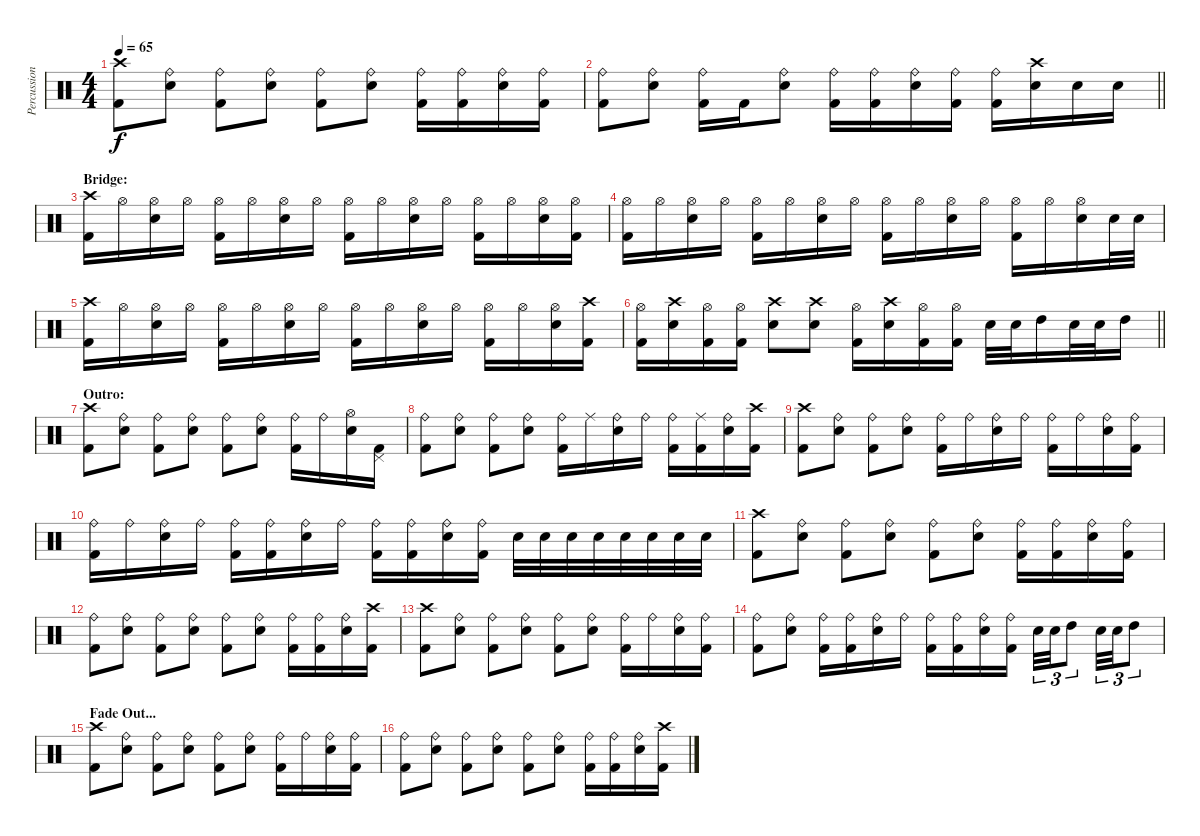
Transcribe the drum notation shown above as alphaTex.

\track ("Percussion" "Percussion") {instrument percussion}
\staff {score}
\articulation defaults
\ts (4 4)
\tempo 65
\clef neutral
\ks c
("Crash high (hit)" "Kick (hit) 2").8{dy f} ("Ride (bell)" "Electric Snare (hit)").8 ("Ride (bell)" "Kick (hit) 2").8 ("Ride (bell)" "Electric Snare (hit)").8 ("Ride (bell)" "Kick (hit) 2").8 ("Ride (bell)" "Electric Snare (hit)").8 ("Ride (bell)" "Kick (hit) 2").16 ("Ride (bell)" "Kick (hit) 2").16 ("Ride (bell)" "Electric Snare (hit)").16 ("Ride (bell)" "Kick (hit) 2").16 |
\barLineRight lightlight
("Ride (bell)" "Kick (hit) 2").8 ("Ride (bell)" "Electric Snare (hit)").8 ("Ride (bell)" "Kick (hit) 2").16 "Kick (hit) 2".16 ("Ride (bell)" "Electric Snare (hit)").8 ("Ride (bell)" "Kick (hit) 2").16 ("Ride (bell)" "Kick (hit) 2").16 ("Ride (bell)" "Electric Snare (hit)").16 ("Ride (bell)" "Kick (hit) 2").16 ("Ride (bell)" "Kick (hit) 2").16 ("Crash high (hit)" "Electric Snare (hit)").16 "Electric Snare (hit)".16 "Electric Snare (hit)".16 |
\section ("" "Bridge:")
("Crash high (hit)" "Kick (hit) 2").16 "Hi-Hat (open)".16 ("Hi-Hat (open)" "Electric Snare (hit)").16 "Hi-Hat (open)".16 ("Hi-Hat (open)" "Kick (hit) 2").16 "Hi-Hat (open)".16 ("Hi-Hat (open)" "Electric Snare (hit)").16 "Hi-Hat (open)".16 ("Hi-Hat (open)" "Kick (hit) 2").16 "Hi-Hat (open)".16 ("Hi-Hat (open)" "Electric Snare (hit)").16 "Hi-Hat (open)".16 ("Hi-Hat (open)" "Kick (hit) 2").16 "Hi-Hat (open)".16 ("Hi-Hat (open)" "Electric Snare (hit)").16 ("Hi-Hat (open)" "Kick (hit) 2").16 |
("Hi-Hat (open)" "Kick (hit) 2").16 "Hi-Hat (open)".16 ("Hi-Hat (open)" "Electric Snare (hit)").16 "Hi-Hat (open)".16 ("Hi-Hat (open)" "Kick (hit) 2").16 "Hi-Hat (open)".16 ("Hi-Hat (open)" "Electric Snare (hit)").16 "Hi-Hat (open)".16 ("Hi-Hat (open)" "Kick (hit) 2").16 "Hi-Hat (open)".16 ("Hi-Hat (open)" "Electric Snare (hit)").16 "Hi-Hat (open)".16 ("Hi-Hat (open)" "Kick (hit) 2").16 "Hi-Hat (open)".16 ("Hi-Hat (open)" "Electric Snare (hit)").16 "Electric Snare (hit)".32 "Electric Snare (hit)".32 |
("Crash high (hit)" "Kick (hit) 2").16 "Hi-Hat (open)".16 ("Hi-Hat (open)" "Electric Snare (hit)").16 "Hi-Hat (open)".16 ("Hi-Hat (open)" "Kick (hit) 2").16 "Hi-Hat (open)".16 ("Hi-Hat (open)" "Electric Snare (hit)").16 "Hi-Hat (open)".16 ("Hi-Hat (open)" "Kick (hit) 2").16 "Hi-Hat (open)".16 ("Hi-Hat (open)" "Electric Snare (hit)").16 "Hi-Hat (open)".16 ("Hi-Hat (open)" "Kick (hit) 2").16 "Hi-Hat (open)".16 ("Hi-Hat (open)" "Electric Snare (hit)").16 ("Crash high (hit)" "Kick (hit) 2").16 |
\barLineRight lightlight
("Hi-Hat (open)" "Kick (hit) 2").16 ("Crash high (hit)" "Electric Snare (hit)").16 ("Hi-Hat (open)" "Kick (hit) 2").16 ("Hi-Hat (open)" "Kick (hit) 2").16 ("Crash high (hit)" "Electric Snare (hit)").8 ("Crash high (hit)" "Electric Snare (hit)").8 ("Hi-Hat (open)" "Kick (hit) 2").16 ("Crash high (hit)" "Electric Snare (hit)").16 ("Hi-Hat (open)" "Kick (hit) 2").16 ("Hi-Hat (open)" "Kick (hit) 2").16 "Electric Snare (hit)".32 "Electric Snare (hit)".32 "High Tom (hit)".16 "Electric Snare (hit)".32 "Electric Snare (hit)".32 "High Tom (hit)".16 |
\section ("" "Outro:")
("Crash high (hit)" "Kick (hit) 2").8 ("Ride (bell)" "Electric Snare (hit)").8 ("Ride (bell)" "Kick (hit) 2").8 ("Ride (bell)" "Electric Snare (hit)").8 ("Ride (bell)" "Kick (hit) 2").8 ("Ride (bell)" "Electric Snare (hit)").8 ("Ride (bell)" "Kick (hit) 2").16 "Ride (bell)".16 ("Hi-Hat (open)" "Electric Snare (hit)").16 ("Pedal Hi-Hat (hit)" "Kick (hit) 2").16 |
("Ride (bell)" "Kick (hit) 2").8 ("Ride (bell)" "Electric Snare (hit)").8 ("Ride (bell)" "Kick (hit) 2").8 ("Ride (bell)" "Electric Snare (hit)").8 ("Ride (bell)" "Kick (hit) 2").16 "Ride (middle)".16 ("Ride (bell)" "Electric Snare (hit)").16 "Ride (bell)".16 ("Ride (bell)" "Kick (hit) 2").16 ("Ride (middle)" "Kick (hit) 2").16 ("Ride (bell)" "Electric Snare (hit)").16 ("Crash high (hit)" "Kick (hit) 2").16 |
("Crash high (hit)" "Kick (hit) 2").8 ("Ride (bell)" "Electric Snare (hit)").8 ("Ride (bell)" "Kick (hit) 2").8 ("Ride (bell)" "Electric Snare (hit)").8 ("Ride (bell)" "Kick (hit) 2").16 "Ride (bell)".16 ("Ride (bell)" "Electric Snare (hit)").16 "Ride (bell)".16 ("Ride (bell)" "Kick (hit) 2").16 "Ride (bell)".16 ("Ride (bell)" "Electric Snare (hit)").16 ("Ride (bell)" "Kick (hit) 2").16 |
("Ride (bell)" "Kick (hit) 2").16 "Ride (bell)".16 ("Ride (bell)" "Electric Snare (hit)").16 "Ride (bell)".16 ("Ride (bell)" "Kick (hit) 2").16 ("Ride (bell)" "Kick (hit) 2").16 ("Ride (bell)" "Electric Snare (hit)").16 "Ride (bell)".16 ("Ride (bell)" "Kick (hit) 2").16 ("Ride (bell)" "Kick (hit) 2").16 ("Ride (bell)" "Electric Snare (hit)").16 ("Ride (bell)" "Kick (hit) 2").16 "Electric Snare (hit)".32 "Electric Snare (hit)".32 "Electric Snare (hit)".32 "Electric Snare (hit)".32 "Electric Snare (hit)".32 "Electric Snare (hit)".32 "Electric Snare (hit)".32 "Electric Snare (hit)".32 |
("Crash high (hit)" "Kick (hit) 2").8 ("Ride (bell)" "Electric Snare (hit)").8 ("Ride (bell)" "Kick (hit) 2").8 ("Ride (bell)" "Electric Snare (hit)").8 ("Ride (bell)" "Kick (hit) 2").8 ("Ride (bell)" "Electric Snare (hit)").8 ("Ride (bell)" "Kick (hit) 2").16 ("Ride (bell)" "Kick (hit) 2").16 ("Ride (bell)" "Electric Snare (hit)").16 ("Ride (bell)" "Kick (hit) 2").16 |
("Ride (bell)" "Kick (hit) 2").8 ("Ride (bell)" "Electric Snare (hit)").8 ("Ride (bell)" "Kick (hit) 2").8 ("Ride (bell)" "Electric Snare (hit)").8 ("Ride (bell)" "Kick (hit) 2").8 ("Ride (bell)" "Electric Snare (hit)").8 ("Ride (bell)" "Kick (hit) 2").16 ("Ride (bell)" "Kick (hit) 2").16 ("Ride (bell)" "Electric Snare (hit)").16 ("Crash high (hit)" "Kick (hit) 2").16 |
("Crash high (hit)" "Kick (hit) 2").8 ("Ride (bell)" "Electric Snare (hit)").8 ("Ride (bell)" "Kick (hit) 2").8 ("Ride (bell)" "Electric Snare (hit)").8 ("Ride (bell)" "Kick (hit) 2").8 ("Ride (bell)" "Electric Snare (hit)").8 ("Ride (bell)" "Kick (hit) 2").16 "Ride (bell)".16 ("Ride (bell)" "Electric Snare (hit)").16 ("Ride (bell)" "Kick (hit) 2").16 |
("Ride (bell)" "Kick (hit) 2").8 ("Ride (bell)" "Electric Snare (hit)").8 ("Ride (bell)" "Kick (hit) 2").16 ("Ride (bell)" "Kick (hit) 2").16 ("Ride (bell)" "Electric Snare (hit)").16 "Ride (bell)".16 ("Ride (bell)" "Kick (hit) 2").16 ("Ride (bell)" "Kick (hit) 2").16 ("Ride (bell)" "Electric Snare (hit)").16 ("Ride (bell)" "Kick (hit) 2").16 "Electric Snare (hit)".32{tu (3 2)} "Electric Snare (hit)".32{tu (3 2)} "High Tom (hit)".8{tu (3 2)} "Electric Snare (hit)".32{tu (3 2)} "Electric Snare (hit)".32{tu (3 2)} "High Tom (hit)".8{tu (3 2)} |
\section ("" "Fade Out...")
("Crash high (hit)" "Kick (hit) 2").8 ("Ride (bell)" "Electric Snare (hit)").8 ("Ride (bell)" "Kick (hit) 2").8 ("Ride (bell)" "Electric Snare (hit)").8 ("Ride (bell)" "Kick (hit) 2").8 ("Ride (bell)" "Electric Snare (hit)").8 ("Ride (bell)" "Kick (hit) 2").16 "Ride (bell)".16 ("Ride (bell)" "Electric Snare (hit)").16 ("Ride (bell)" "Kick (hit) 2").16 |
("Ride (bell)" "Kick (hit) 2").8 ("Ride (bell)" "Electric Snare (hit)").8 ("Ride (bell)" "Kick (hit) 2").8 ("Ride (bell)" "Electric Snare (hit)").8 ("Ride (bell)" "Kick (hit) 2").8 ("Ride (bell)" "Electric Snare (hit)").8 ("Ride (bell)" "Kick (hit) 2").16 ("Ride (bell)" "Kick (hit) 2").16 ("Ride (bell)" "Electric Snare (hit)").16 ("Crash high (hit)" "Kick (hit) 2").16
